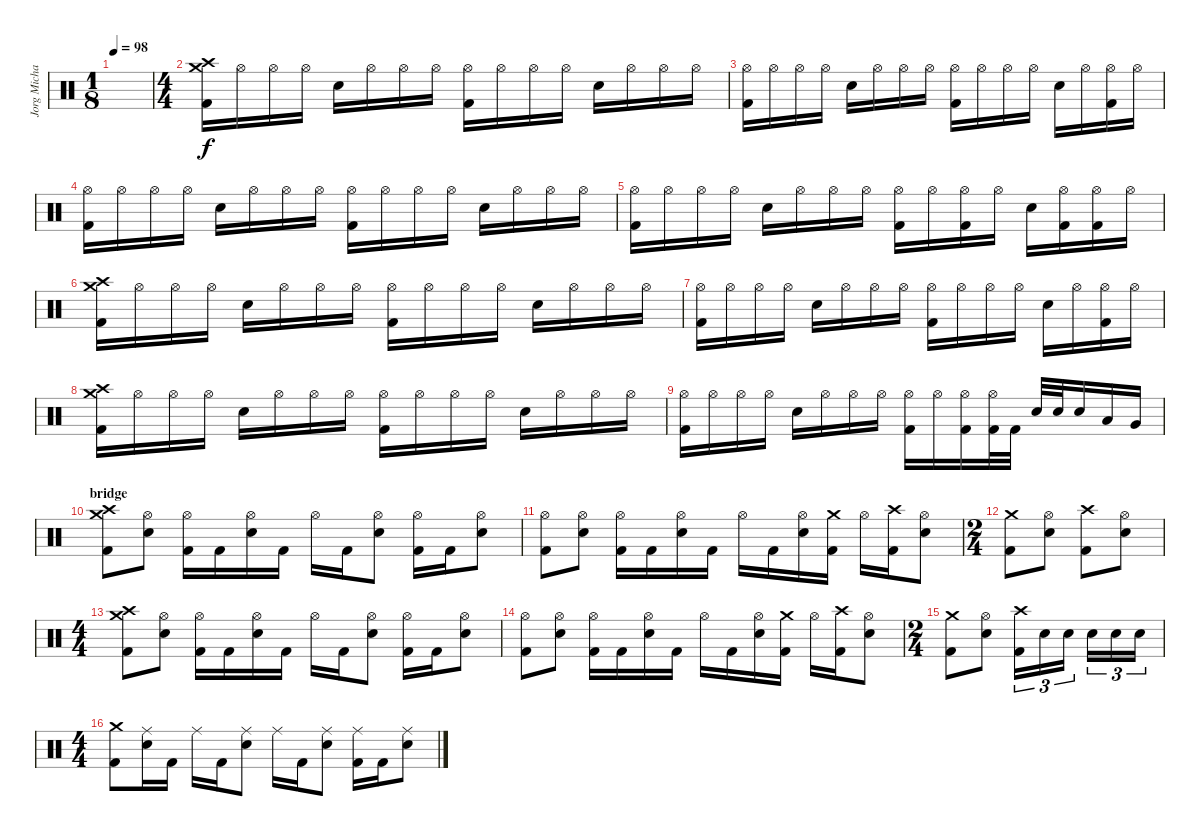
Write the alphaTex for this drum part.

\track ("Jorg Michael" "Jorg Micha") {instrument percussion}
\staff {score}
\articulation defaults
\ts (1 8)
\tempo 98
\clef neutral
\ks c
|
\ts (4 4)
("Crash medium (hit)" "Crash high (hit)" "Kick (hit) 2").16 "Hi-Hat (open)".16 "Hi-Hat (open)".16 "Hi-Hat (open)".16 "Electric Snare (hit)".16 "Hi-Hat (open)".16 "Hi-Hat (open)".16 "Hi-Hat (open)".16 ("Hi-Hat (open)" "Kick (hit) 2").16 "Hi-Hat (open)".16 "Hi-Hat (open)".16 "Hi-Hat (open)".16 "Electric Snare (hit)".16 "Hi-Hat (open)".16 "Hi-Hat (open)".16 "Hi-Hat (open)".16 |
("Hi-Hat (open)" "Kick (hit) 2").16 "Hi-Hat (open)".16 "Hi-Hat (open)".16 "Hi-Hat (open)".16 "Electric Snare (hit)".16 "Hi-Hat (open)".16 "Hi-Hat (open)".16 "Hi-Hat (open)".16 ("Hi-Hat (open)" "Kick (hit) 2").16 "Hi-Hat (open)".16 "Hi-Hat (open)".16 "Hi-Hat (open)".16 "Electric Snare (hit)".16 "Hi-Hat (open)".16 ("Hi-Hat (open)" "Kick (hit) 2").16 "Hi-Hat (open)".16 |
("Hi-Hat (open)" "Kick (hit) 2").16 "Hi-Hat (open)".16 "Hi-Hat (open)".16 "Hi-Hat (open)".16 "Electric Snare (hit)".16 "Hi-Hat (open)".16 "Hi-Hat (open)".16 "Hi-Hat (open)".16 ("Hi-Hat (open)" "Kick (hit) 2").16 "Hi-Hat (open)".16 "Hi-Hat (open)".16 "Hi-Hat (open)".16 "Electric Snare (hit)".16 "Hi-Hat (open)".16 "Hi-Hat (open)".16 "Hi-Hat (open)".16 |
("Hi-Hat (open)" "Kick (hit) 2").16 "Hi-Hat (open)".16 "Hi-Hat (open)".16 "Hi-Hat (open)".16 "Electric Snare (hit)".16 "Hi-Hat (open)".16 "Hi-Hat (open)".16 "Hi-Hat (open)".16 ("Hi-Hat (open)" "Kick (hit) 2").16 "Hi-Hat (open)".16 ("Hi-Hat (open)" "Kick (hit) 2").16 "Hi-Hat (open)".16 "Electric Snare (hit)".16 ("Hi-Hat (open)" "Kick (hit) 2").16 ("Hi-Hat (open)" "Kick (hit) 2").16 "Hi-Hat (open)".16 |
("Crash medium (hit)" "Crash high (hit)" "Kick (hit) 2").16 "Hi-Hat (open)".16 "Hi-Hat (open)".16 "Hi-Hat (open)".16 "Electric Snare (hit)".16 "Hi-Hat (open)".16 "Hi-Hat (open)".16 "Hi-Hat (open)".16 ("Hi-Hat (open)" "Kick (hit) 2").16 "Hi-Hat (open)".16 "Hi-Hat (open)".16 "Hi-Hat (open)".16 "Electric Snare (hit)".16 "Hi-Hat (open)".16 "Hi-Hat (open)".16 "Hi-Hat (open)".16 |
("Hi-Hat (open)" "Kick (hit) 2").16 "Hi-Hat (open)".16 "Hi-Hat (open)".16 "Hi-Hat (open)".16 "Electric Snare (hit)".16 "Hi-Hat (open)".16 "Hi-Hat (open)".16 "Hi-Hat (open)".16 ("Hi-Hat (open)" "Kick (hit) 2").16 "Hi-Hat (open)".16 "Hi-Hat (open)".16 "Hi-Hat (open)".16 "Electric Snare (hit)".16 "Hi-Hat (open)".16 ("Hi-Hat (open)" "Kick (hit) 2").16 "Hi-Hat (open)".16 |
("Crash medium (hit)" "Crash high (hit)" "Kick (hit) 2").16 "Hi-Hat (open)".16 "Hi-Hat (open)".16 "Hi-Hat (open)".16 "Electric Snare (hit)".16 "Hi-Hat (open)".16 "Hi-Hat (open)".16 "Hi-Hat (open)".16 ("Hi-Hat (open)" "Kick (hit) 2").16 "Hi-Hat (open)".16 "Hi-Hat (open)".16 "Hi-Hat (open)".16 "Electric Snare (hit)".16 "Hi-Hat (open)".16 "Hi-Hat (open)".16 "Hi-Hat (open)".16 |
("Hi-Hat (open)" "Kick (hit) 2").16 "Hi-Hat (open)".16 "Hi-Hat (open)".16 "Hi-Hat (open)".16 "Electric Snare (hit)".16 "Hi-Hat (open)".16 "Hi-Hat (open)".16 "Hi-Hat (open)".16 ("Hi-Hat (open)" "Kick (hit) 2").16 "Hi-Hat (open)".16 ("Hi-Hat (open)" "Kick (hit) 2").16 ("Hi-Hat (open)" "Kick (hit) 2").32 "Kick (hit) 2".32 "Electric Snare (hit)".32 "Electric Snare (hit)".32 "Electric Snare (hit)".16 "Low Tom (hit)".16 "Very Low Tom (hit)".16 |
\section ("" "bridge")
("Crash medium (hit)" "Crash high (hit)" "Kick (hit) 2").8 ("Hi-Hat (open)" "Electric Snare (hit)").8 ("Hi-Hat (open)" "Kick (hit) 2").16 "Kick (hit) 2".16 ("Hi-Hat (open)" "Electric Snare (hit)").16 "Kick (hit) 2".16 "Hi-Hat (open)".16 "Kick (hit) 2".16 ("Hi-Hat (open)" "Electric Snare (hit)").8 ("Hi-Hat (open)" "Kick (hit) 2").16 "Kick (hit) 2".16 ("Hi-Hat (open)" "Electric Snare (hit)").8 |
("Hi-Hat (open)" "Kick (hit) 2").8 ("Hi-Hat (open)" "Electric Snare (hit)").8 ("Hi-Hat (open)" "Kick (hit) 2").16 "Kick (hit) 2".16 ("Hi-Hat (open)" "Electric Snare (hit)").16 "Kick (hit) 2".16 "Hi-Hat (open)".16 "Kick (hit) 2".16 ("Hi-Hat (open)" "Electric Snare (hit)").16 ("Crash medium (hit)" "Kick (hit) 2").16 "Hi-Hat (open)".16 ("Crash high (hit)" "Kick (hit) 2").16 ("Hi-Hat (open)" "Electric Snare (hit)").8 |
\ts (2 4)
("Crash medium (hit)" "Kick (hit) 2").8 ("Hi-Hat (open)" "Electric Snare (hit)").8 ("Crash high (hit)" "Kick (hit) 2").8 ("Hi-Hat (open)" "Electric Snare (hit)").8 |
\ts (4 4)
("Crash medium (hit)" "Crash high (hit)" "Kick (hit) 2").8 ("Hi-Hat (open)" "Electric Snare (hit)").8 ("Hi-Hat (open)" "Kick (hit) 2").16 "Kick (hit) 2".16 ("Hi-Hat (open)" "Electric Snare (hit)").16 "Kick (hit) 2".16 "Hi-Hat (open)".16 "Kick (hit) 2".16 ("Hi-Hat (open)" "Electric Snare (hit)").8 ("Hi-Hat (open)" "Kick (hit) 2").16 "Kick (hit) 2".16 ("Hi-Hat (open)" "Electric Snare (hit)").8 |
("Hi-Hat (open)" "Kick (hit) 2").8 ("Hi-Hat (open)" "Electric Snare (hit)").8 ("Hi-Hat (open)" "Kick (hit) 2").16 "Kick (hit) 2".16 ("Hi-Hat (open)" "Electric Snare (hit)").16 "Kick (hit) 2".16 "Hi-Hat (open)".16 "Kick (hit) 2".16 ("Hi-Hat (open)" "Electric Snare (hit)").16 ("Crash medium (hit)" "Kick (hit) 2").16 "Hi-Hat (open)".16 ("Crash high (hit)" "Kick (hit) 2").16 ("Hi-Hat (open)" "Electric Snare (hit)").8 |
\ts (2 4)
("Crash medium (hit)" "Kick (hit) 2").8 ("Hi-Hat (open)" "Electric Snare (hit)").8 ("Crash high (hit)" "Kick (hit) 2").16{tu (3 2)} "Electric Snare (hit)".16{tu (3 2)} "Electric Snare (hit)".16{tu (3 2)} "Electric Snare (hit)".16{tu (3 2)} "Electric Snare (hit)".16{tu (3 2)} "Electric Snare (hit)".16{tu (3 2)} |
\ts (4 4)
("Crash medium (hit)" "Kick (hit) 2").8 ("Ride (middle)" "Electric Snare (hit)").16 "Kick (hit) 2".16 "Ride (middle)".16 "Kick (hit) 2".16 ("Ride (middle)" "Electric Snare (hit)").8 "Ride (middle)".16 "Kick (hit) 2".16 ("Ride (middle)" "Electric Snare (hit)").8 ("Ride (middle)" "Kick (hit) 2").16 "Kick (hit) 2".16 ("Ride (middle)" "Electric Snare (hit)").8
